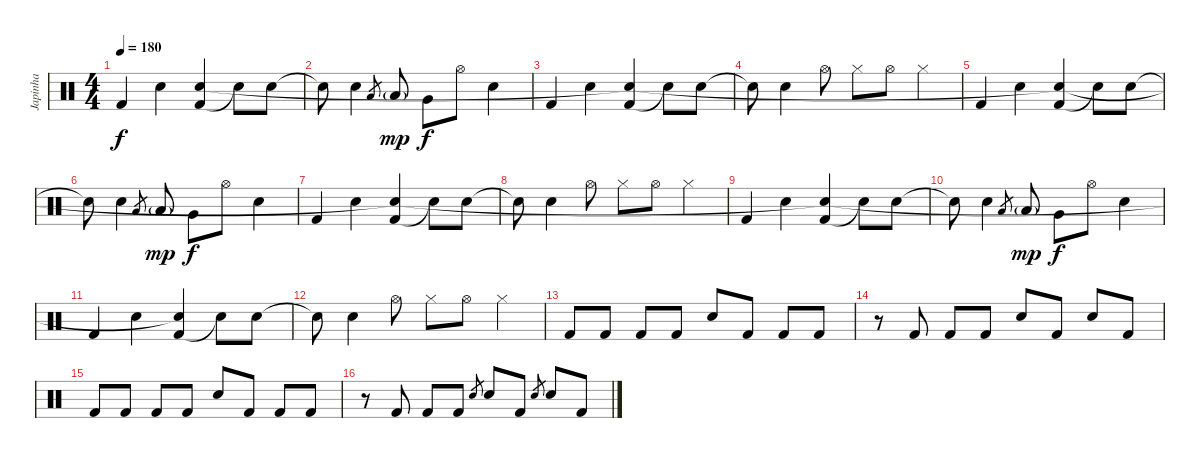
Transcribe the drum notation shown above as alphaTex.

\track ("Japinha" "Japinha") {instrument percussion}
\staff {score}
\articulation defaults
\ts (4 4)
\tempo 180
\clef neutral
\ks c "Kick (hit) 2".4{dy f} "Snare (hit) 2".4
("Kick (hit) 2" "Snare (hit)"{t}).4 "Snare (hit)"{t}.8 "Snare (hit) 2".8 |
"Snare (hit)"{t}.8 "Snare (hit) 2".4 "Low Tom (hit)".8{gr} "Low Tom (hit)"{g}.8{dy mp} "Very Low Tom (hit)".8{dy f} "Hi-Hat (open)".8 "Snare (hit) 2".4 |
"Kick (hit) 2".4 "Snare (hit) 2".4 ("Kick (hit) 2" "Snare (hit)"{t}).4 "Snare (hit)"{t}.8 "Snare (hit) 2".8 |
"Snare (hit)"{t}.8 "Snare (hit) 2".4 "Hi-Hat (open)".8 "Hi-Hat (closed)".8 "Hi-Hat (open)".8 "Hi-Hat (closed)".4 |
"Kick (hit) 2".4 "Snare (hit) 2".4 ("Kick (hit) 2" "Snare (hit)"{t}).4 "Snare (hit)"{t}.8 "Snare (hit) 2".8 |
"Snare (hit)"{t}.8 "Snare (hit) 2".4 "Low Tom (hit)".8{gr} "Low Tom (hit)"{g}.8{dy mp} "Very Low Tom (hit)".8{dy f} "Hi-Hat (open)".8 "Snare (hit) 2".4 |
"Kick (hit) 2".4 "Snare (hit) 2".4 ("Kick (hit) 2" "Snare (hit)"{t}).4 "Snare (hit)"{t}.8 "Snare (hit) 2".8 |
"Snare (hit)"{t}.8 "Snare (hit) 2".4 "Hi-Hat (open)".8 "Hi-Hat (closed)".8 "Hi-Hat (open)".8 "Hi-Hat (closed)".4 |
"Kick (hit) 2".4 "Snare (hit) 2".4 ("Kick (hit) 2" "Snare (hit)"{t}).4 "Snare (hit)"{t}.8 "Snare (hit) 2".8 |
"Snare (hit)"{t}.8 "Snare (hit) 2".4 "Low Tom (hit)".8{gr} "Low Tom (hit)"{g}.8{dy mp} "Very Low Tom (hit)".8{dy f} "Hi-Hat (open)".8 "Snare (hit) 2".4 |
"Kick (hit) 2".4 "Snare (hit) 2".4 ("Kick (hit) 2" "Snare (hit)"{t}).4 "Snare (hit)"{t}.8 "Snare (hit) 2".8 |
"Snare (hit)"{t}.8 "Snare (hit) 2".4 "Hi-Hat (open)".8 "Hi-Hat (closed)".8 "Hi-Hat (open)".8 "Hi-Hat (closed)".4 |
"Kick (hit) 2".8 "Kick (hit) 2".8 "Kick (hit) 2".8 "Kick (hit) 2".8 "Snare (hit) 2".8 "Kick (hit) 2".8 "Kick (hit) 2".8 "Kick (hit) 2".8 |
r.8 "Kick (hit) 2".8 "Kick (hit) 2".8 "Kick (hit) 2".8 "Snare (hit) 2".8 "Kick (hit) 2".8 "Snare (hit) 2".8 "Kick (hit) 2".8 |
"Kick (hit) 2".8 "Kick (hit) 2".8 "Kick (hit) 2".8 "Kick (hit) 2".8 "Snare (hit) 2".8 "Kick (hit) 2".8 "Kick (hit) 2".8 "Kick (hit) 2".8 |
r.8 "Kick (hit) 2".8 "Kick (hit) 2".8 "Kick (hit) 2".8 "Snare (hit) 2".8{gr} "Snare (hit) 2".8 "Kick (hit) 2".8 "Snare (hit) 2".8{gr} "Snare (hit) 2".8 "Kick (hit) 2".8
